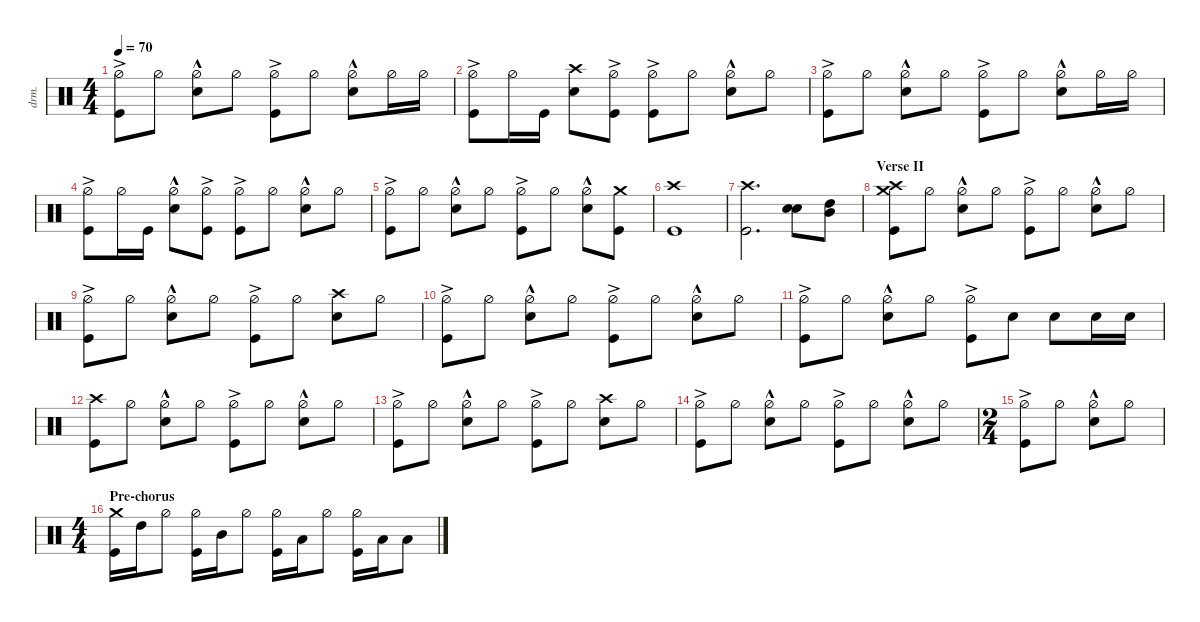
\defaultSystemsLayout 4
\hideDynamics
\bracketExtendMode nobrackets
\otherSystemsTrackNameOrientation horizontal
\track ("Drums" "drm.") {defaultSystemsLayout 4 multiBarRest instrument percussion}
\staff {score}
\articulation defaults
\ts (4 4)
\tempo 70
\clef neutral
\ks c
("Kick (hit)" "Hi-Hat (half)"{ac}).8{dy f} "Hi-Hat (half)".8 ("Hi-Hat (half)"{hac} "Snare (hit) 2").8 "Hi-Hat (half)".8 ("Kick (hit)" "Hi-Hat (half)"{ac}).8 "Hi-Hat (half)".8 ("Hi-Hat (half)"{hac} "Snare (hit) 2").8 "Hi-Hat (half)".16 "Hi-Hat (half)".16 |
("Kick (hit)" "Hi-Hat (half)"{ac}).8 "Hi-Hat (half)".16 "Kick (hit)".16 ("Snare (hit) 2" "Crash high (hit)").8 ("Kick (hit)" "Hi-Hat (half)"{ac}).8 ("Kick (hit)" "Hi-Hat (half)"{ac}).8 "Hi-Hat (half)".8 ("Snare (hit) 2" "Hi-Hat (half)"{hac}).8 "Hi-Hat (half)".8 |
("Kick (hit)" "Hi-Hat (half)"{ac}).8 "Hi-Hat (half)".8 ("Hi-Hat (half)"{hac} "Snare (hit) 2").8 "Hi-Hat (half)".8 ("Kick (hit)" "Hi-Hat (half)"{ac}).8 "Hi-Hat (half)".8 ("Hi-Hat (half)"{hac} "Snare (hit) 2").8 "Hi-Hat (half)".16 "Hi-Hat (half)".16 |
("Kick (hit)" "Hi-Hat (half)"{ac}).8 "Hi-Hat (half)".16 "Kick (hit)".16 ("Snare (hit) 2" "Hi-Hat (half)"{hac}).8 ("Kick (hit)" "Hi-Hat (half)"{ac}).8 ("Kick (hit)" "Hi-Hat (half)"{ac}).8 "Hi-Hat (half)".8 ("Snare (hit) 2" "Hi-Hat (half)"{hac}).8 "Hi-Hat (half)".8 |
("Kick (hit)" "Hi-Hat (half)"{ac}).8 "Hi-Hat (half)".8 ("Hi-Hat (half)"{hac} "Snare (hit) 2").8 "Hi-Hat (half)".8 ("Kick (hit)" "Hi-Hat (half)"{ac}).8 "Hi-Hat (half)".8 ("Hi-Hat (half)"{hac} "Snare (hit) 2").8 ("Kick (hit)" "Crash medium (hit)").8 |
("Crash high (hit)" "Kick (hit)").1 |
("Crash high (hit)" "Kick (hit)").2{d} ("Snare (hit) 2" "Snare (hit) 2").8 ("High Tom (hit)" "Mid Tom (hit)").8{dy ff} |
\section ("" "Verse II")
("Crash high (hit)" "Kick (hit)" "Crash medium (hit)").8{dy f} "Hi-Hat (half)".8 ("Hi-Hat (half)"{hac} "Snare (hit) 2").8 "Hi-Hat (half)".8 ("Kick (hit)" "Hi-Hat (half)"{ac}).8 "Hi-Hat (half)".8 ("Hi-Hat (half)"{hac} "Snare (hit) 2").8 "Hi-Hat (half)".8 |
("Kick (hit)" "Hi-Hat (half)"{ac}).8 "Hi-Hat (half)".8 ("Hi-Hat (half)"{hac} "Snare (hit) 2").8 "Hi-Hat (half)".8 ("Kick (hit)" "Hi-Hat (half)"{ac}).8 "Hi-Hat (half)".8 ("Snare (hit) 2" "Crash high (hit)").8 "Hi-Hat (half)".8 |
("Kick (hit)" "Hi-Hat (half)"{ac}).8 "Hi-Hat (half)".8 ("Hi-Hat (half)"{hac} "Snare (hit) 2").8 "Hi-Hat (half)".8 ("Kick (hit)" "Hi-Hat (half)"{ac}).8 "Hi-Hat (half)".8 ("Snare (hit) 2" "Hi-Hat (half)"{hac}).8 "Hi-Hat (half)".8 |
("Kick (hit)" "Hi-Hat (half)"{ac}).8 "Hi-Hat (half)".8 ("Hi-Hat (half)"{hac} "Snare (hit) 2").8 "Hi-Hat (half)".8 ("Kick (hit)" "Hi-Hat (half)"{ac}).8 "Snare (hit) 2".8 "Snare (hit) 2".8 "Snare (hit) 2".16 "Snare (hit) 2".16 |
("Crash high (hit)" "Kick (hit)").8 "Hi-Hat (half)".8 ("Hi-Hat (half)"{hac} "Snare (hit) 2").8 "Hi-Hat (half)".8 ("Kick (hit)" "Hi-Hat (half)"{ac}).8 "Hi-Hat (half)".8 ("Hi-Hat (half)"{hac} "Snare (hit) 2").8 "Hi-Hat (half)".8 |
("Kick (hit)" "Hi-Hat (half)"{ac}).8 "Hi-Hat (half)".8 ("Hi-Hat (half)"{hac} "Snare (hit) 2").8 "Hi-Hat (half)".8 ("Kick (hit)" "Hi-Hat (half)"{ac}).8 "Hi-Hat (half)".8 ("Snare (hit) 2" "Crash high (hit)").8 "Hi-Hat (half)".8 |
("Kick (hit)" "Hi-Hat (half)"{ac}).8 "Hi-Hat (half)".8 ("Hi-Hat (half)"{hac} "Snare (hit) 2").8 "Hi-Hat (half)".8 ("Kick (hit)" "Hi-Hat (half)"{ac}).8 "Hi-Hat (half)".8 ("Snare (hit) 2" "Hi-Hat (half)"{hac}).8 "Hi-Hat (half)".8 |
\ts (2 4)
\beaming (8 2 2)
("Kick (hit)" "Hi-Hat (half)"{ac}).8 "Hi-Hat (half)".8 ("Hi-Hat (half)"{hac} "Snare (hit) 2").8 "Hi-Hat (half)".8 |
\ts (4 4)
\beaming (8 2 2 2 2)
\section ("" "Pre-chorus")
("Crash medium (hit)" "Kick (hit)").16 "High Tom (hit)".16{dy ff} "Hi-Hat (half)".8{dy f} ("Kick (hit)" "Hi-Hat (half)").16 "Mid Tom (hit)".16{dy ff} "Hi-Hat (half)".8{dy f} ("Kick (hit)" "Hi-Hat (half)").16 "Low Tom (hit)".16{dy ff} "Hi-Hat (half)".8{dy f} ("Kick (hit)" "Hi-Hat (half)").16 "Low Tom (hit)".16{dy ff} "Low Tom (hit)".8
